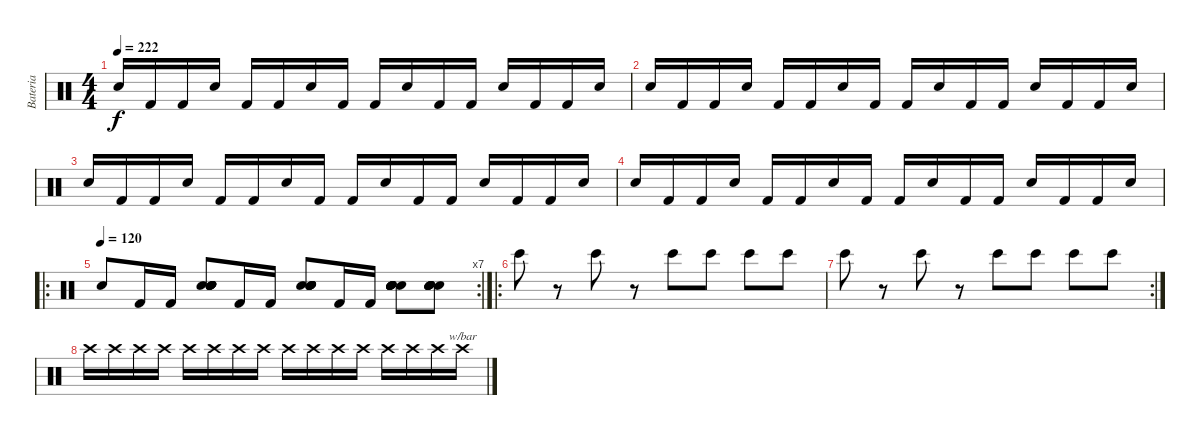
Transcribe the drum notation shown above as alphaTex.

\track ("Bateria" "Bateria") {instrument percussion}
\staff {score}
\articulation defaults
\ts (4 4)
\tempo 222
\clef neutral
\ks c "Snare (hit) 2".16{dy f} "Kick (hit) 2".16 "Kick (hit) 2".16 "Snare (hit) 2".16 "Kick (hit) 2".16 "Kick (hit) 2".16 "Snare (hit) 2".16 "Kick (hit) 2".16 "Kick (hit) 2".16 "Snare (hit) 2".16 "Kick (hit) 2".16 "Kick (hit) 2".16 "Snare (hit) 2".16 "Kick (hit) 2".16 "Kick (hit) 2".16 "Snare (hit) 2".16
|
"Snare (hit) 2".16 "Kick (hit) 2".16 "Kick (hit) 2".16 "Snare (hit) 2".16 "Kick (hit) 2".16 "Kick (hit) 2".16 "Snare (hit) 2".16 "Kick (hit) 2".16 "Kick (hit) 2".16 "Snare (hit) 2".16 "Kick (hit) 2".16 "Kick (hit) 2".16 "Snare (hit) 2".16 "Kick (hit) 2".16 "Kick (hit) 2".16 "Snare (hit) 2".16 |
"Snare (hit) 2".16 "Kick (hit) 2".16 "Kick (hit) 2".16 "Snare (hit) 2".16 "Kick (hit) 2".16 "Kick (hit) 2".16 "Snare (hit) 2".16 "Kick (hit) 2".16 "Kick (hit) 2".16 "Snare (hit) 2".16 "Kick (hit) 2".16 "Kick (hit) 2".16 "Snare (hit) 2".16 "Kick (hit) 2".16 "Kick (hit) 2".16 "Snare (hit) 2".16 |
"Snare (hit) 2".16 "Kick (hit) 2".16 "Kick (hit) 2".16 "Snare (hit) 2".16 "Kick (hit) 2".16 "Kick (hit) 2".16 "Snare (hit) 2".16 "Kick (hit) 2".16 "Kick (hit) 2".16 "Snare (hit) 2".16 "Kick (hit) 2".16 "Kick (hit) 2".16 "Snare (hit) 2".16 "Kick (hit) 2".16 "Kick (hit) 2".16 "Snare (hit) 2".16 |
\ro
\rc 7
\tempo (120)
"Snare (hit) 2".8{volume 16} "Kick (hit) 2".16 "Kick (hit) 2".16 ("Snare (hit) 2" "Snare (hit) 2" "Snare (hit) 2" "Snare (hit) 2" "Snare (hit) 2" "Snare (hit) 2").8 "Kick (hit) 2".16 "Kick (hit) 2".16 ("Snare (hit) 2" "Snare (hit) 2" "Snare (hit) 2" "Snare (hit) 2" "Snare (hit) 2" "Snare (hit) 2").8 "Kick (hit) 2".16 "Kick (hit) 2".16 ("Snare (hit) 2" "Snare (hit) 2" "Snare (hit) 2" "Snare (hit) 2" "Snare (hit) 2" "Snare (hit) 2").8 ("Snare (hit) 2" "Snare (hit) 2" "Snare (hit) 2" "Snare (hit) 2" "Snare (hit) 2" "Snare (hit) 2").8 |
\ro "Bongo High (hit)".8
r.8 "Bongo High (hit)".8 r.8 "Bongo High (hit)".8 "Bongo High (hit)".8 "Bongo High (hit)".8 "Bongo High (hit)".8 |
\rc 2 "Bongo High (hit)".8
r.8 "Bongo High (hit)".8 r.8 "Bongo High (hit)".8 "Bongo High (hit)".8 "Bongo High (hit)".8 "Bongo High (hit)".8 |
"Crash high (hit)".16 "Crash high (hit)".16 "Crash high (hit)".16 "Crash high (hit)".16 "Crash high (hit)".16 "Crash high (hit)".16 "Crash high (hit)".16 "Crash high (hit)".16 "Crash high (hit)".16 "Crash high (hit)".16 "Crash high (hit)".16 "Crash high (hit)".16 "Crash high (hit)".16 "Crash high (hit)".16 "Crash high (hit)".16 "Crash high (hit)".16{tbe (custom default 0 0 45 -24 60 -24)}
